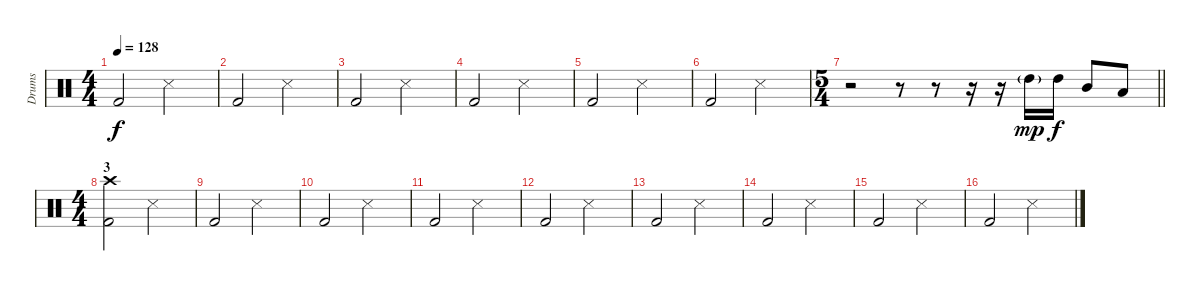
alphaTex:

\track ("Drums" "Drums") {instrument percussion}
\staff {score}
\articulation defaults
\ts (4 4)
\tempo 128
\clef neutral
\ks c "Kick (hit) 2".2{dy f} "Snare (side stick) 3".2
|
"Kick (hit) 2".2 "Snare (side stick) 3".2 |
"Kick (hit) 2".2 "Snare (side stick) 3".2 |
"Kick (hit) 2".2 "Snare (side stick) 3".2 |
"Kick (hit) 2".2 "Snare (side stick) 3".2 |
"Kick (hit) 2".2 "Snare (side stick) 3".2 |
\ts (5 4)
\barLineRight lightlight
r.2 r.8 r.8 r.16 r.16 "High Tom (hit)"{g}.16{dy mp} "High Tom (hit)".16{dy f} "Mid Tom (hit)".8 "Low Tom (hit)".8 |
\ts (4 4)
\section ("" "3")
("Crash high (hit)" "Kick (hit) 2").2 "Snare (side stick) 3".2 |
"Kick (hit) 2".2 "Snare (side stick) 3".2 |
"Kick (hit) 2".2 "Snare (side stick) 3".2 |
"Kick (hit) 2".2 "Snare (side stick) 3".2 |
"Kick (hit) 2".2 "Snare (side stick) 3".2 |
"Kick (hit) 2".2 "Snare (side stick) 3".2 |
"Kick (hit) 2".2 "Snare (side stick) 3".2 |
"Kick (hit) 2".2 "Snare (side stick) 3".2 |
"Kick (hit) 2".2 "Snare (side stick) 3".2
